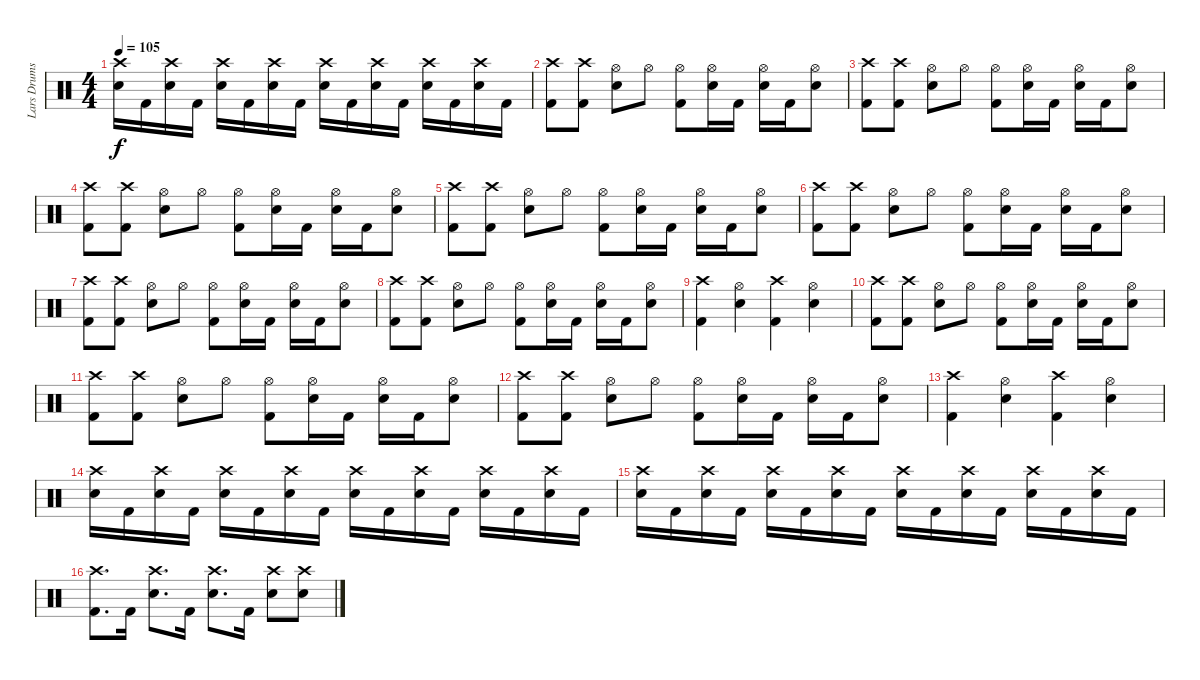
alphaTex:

\track ("Lars Drums" "Lars Drums") {instrument percussion}
\staff {score}
\articulation defaults
\ts (4 4)
\tempo 105
\clef neutral
\ks c
("Crash high (hit)" "Snare (hit) 2").16{dy f} "Kick (hit) 2".16 ("Crash high (hit)" "Snare (hit) 2").16 "Kick (hit) 2".16 ("Crash high (hit)" "Snare (hit) 2").16 "Kick (hit) 2".16 ("Crash high (hit)" "Snare (hit) 2").16 "Kick (hit) 2".16 ("Crash high (hit)" "Snare (hit) 2").16 "Kick (hit) 2".16 ("Crash high (hit)" "Snare (hit) 2").16 "Kick (hit) 2".16 ("Crash high (hit)" "Snare (hit) 2").16 "Kick (hit) 2".16 ("Crash high (hit)" "Snare (hit) 2").16 "Kick (hit) 2".16 |
("Crash high (hit)" "Kick (hit) 2").8 ("Crash high (hit)" "Kick (hit) 2").8 ("Hi-Hat (open)" "Snare (hit) 2").8 "Hi-Hat (open)".8 ("Hi-Hat (open)" "Kick (hit) 2").8 ("Hi-Hat (open)" "Snare (hit) 2").16 "Kick (hit) 2".16 ("Hi-Hat (open)" "Snare (hit) 2").16 "Kick (hit) 2".16 ("Hi-Hat (open)" "Snare (hit) 2").8 |
("Crash high (hit)" "Kick (hit) 2").8 ("Crash high (hit)" "Kick (hit) 2").8 ("Hi-Hat (open)" "Snare (hit) 2").8 "Hi-Hat (open)".8 ("Hi-Hat (open)" "Kick (hit) 2").8 ("Hi-Hat (open)" "Snare (hit) 2").16 "Kick (hit) 2".16 ("Hi-Hat (open)" "Snare (hit) 2").16 "Kick (hit) 2".16 ("Hi-Hat (open)" "Snare (hit) 2").8 |
("Crash high (hit)" "Kick (hit) 2").8 ("Crash high (hit)" "Kick (hit) 2").8 ("Hi-Hat (open)" "Snare (hit) 2").8 "Hi-Hat (open)".8 ("Hi-Hat (open)" "Kick (hit) 2").8 ("Hi-Hat (open)" "Snare (hit) 2").16 "Kick (hit) 2".16 ("Hi-Hat (open)" "Snare (hit) 2").16 "Kick (hit) 2".16 ("Hi-Hat (open)" "Snare (hit) 2").8 |
("Crash high (hit)" "Kick (hit) 2").8 ("Crash high (hit)" "Kick (hit) 2").8 ("Hi-Hat (open)" "Snare (hit) 2").8 "Hi-Hat (open)".8 ("Hi-Hat (open)" "Kick (hit) 2").8 ("Hi-Hat (open)" "Snare (hit) 2").16 "Kick (hit) 2".16 ("Hi-Hat (open)" "Snare (hit) 2").16 "Kick (hit) 2".16 ("Hi-Hat (open)" "Snare (hit) 2").8 |
("Crash high (hit)" "Kick (hit) 2").8 ("Crash high (hit)" "Kick (hit) 2").8 ("Hi-Hat (open)" "Snare (hit) 2").8 "Hi-Hat (open)".8 ("Hi-Hat (open)" "Kick (hit) 2").8 ("Hi-Hat (open)" "Snare (hit) 2").16 "Kick (hit) 2".16 ("Hi-Hat (open)" "Snare (hit) 2").16 "Kick (hit) 2".16 ("Hi-Hat (open)" "Snare (hit) 2").8 |
("Crash high (hit)" "Kick (hit) 2").8 ("Crash high (hit)" "Kick (hit) 2").8 ("Hi-Hat (open)" "Snare (hit) 2").8 "Hi-Hat (open)".8 ("Hi-Hat (open)" "Kick (hit) 2").8 ("Hi-Hat (open)" "Snare (hit) 2").16 "Kick (hit) 2".16 ("Hi-Hat (open)" "Snare (hit) 2").16 "Kick (hit) 2".16 ("Hi-Hat (open)" "Snare (hit) 2").8 |
("Crash high (hit)" "Kick (hit) 2").8 ("Crash high (hit)" "Kick (hit) 2").8 ("Hi-Hat (open)" "Snare (hit) 2").8 "Hi-Hat (open)".8 ("Hi-Hat (open)" "Kick (hit) 2").8 ("Hi-Hat (open)" "Snare (hit) 2").16 "Kick (hit) 2".16 ("Hi-Hat (open)" "Snare (hit) 2").16 "Kick (hit) 2".16 ("Hi-Hat (open)" "Snare (hit) 2").8 |
("Crash high (hit)" "Kick (hit) 2").4 ("Hi-Hat (open)" "Snare (hit) 2").4 ("Crash high (hit)" "Kick (hit) 2").4 ("Hi-Hat (open)" "Snare (hit) 2").4 |
("Crash high (hit)" "Kick (hit) 2").8 ("Crash high (hit)" "Kick (hit) 2").8 ("Hi-Hat (open)" "Snare (hit) 2").8 "Hi-Hat (open)".8 ("Hi-Hat (open)" "Kick (hit) 2").8 ("Hi-Hat (open)" "Snare (hit) 2").16 "Kick (hit) 2".16 ("Hi-Hat (open)" "Snare (hit) 2").16 "Kick (hit) 2".16 ("Hi-Hat (open)" "Snare (hit) 2").8 |
("Crash high (hit)" "Kick (hit) 2").8 ("Crash high (hit)" "Kick (hit) 2").8 ("Hi-Hat (open)" "Snare (hit) 2").8 "Hi-Hat (open)".8 ("Hi-Hat (open)" "Kick (hit) 2").8 ("Hi-Hat (open)" "Snare (hit) 2").16 "Kick (hit) 2".16 ("Hi-Hat (open)" "Snare (hit) 2").16 "Kick (hit) 2".16 ("Hi-Hat (open)" "Snare (hit) 2").8 |
("Crash high (hit)" "Kick (hit) 2").8 ("Crash high (hit)" "Kick (hit) 2").8 ("Hi-Hat (open)" "Snare (hit) 2").8 "Hi-Hat (open)".8 ("Hi-Hat (open)" "Kick (hit) 2").8 ("Hi-Hat (open)" "Snare (hit) 2").16 "Kick (hit) 2".16 ("Hi-Hat (open)" "Snare (hit) 2").16 "Kick (hit) 2".16 ("Hi-Hat (open)" "Snare (hit) 2").8 |
("Crash high (hit)" "Kick (hit) 2").4 ("Hi-Hat (open)" "Snare (hit) 2").4 ("Crash high (hit)" "Kick (hit) 2").4 ("Hi-Hat (open)" "Snare (hit) 2").4 |
("Crash high (hit)" "Snare (hit) 2").16 "Kick (hit) 2".16 ("Crash high (hit)" "Snare (hit) 2").16 "Kick (hit) 2".16 ("Crash high (hit)" "Snare (hit) 2").16 "Kick (hit) 2".16 ("Crash high (hit)" "Snare (hit) 2").16 "Kick (hit) 2".16 ("Crash high (hit)" "Snare (hit) 2").16 "Kick (hit) 2".16 ("Crash high (hit)" "Snare (hit) 2").16 "Kick (hit) 2".16 ("Crash high (hit)" "Snare (hit) 2").16 "Kick (hit) 2".16 ("Crash high (hit)" "Snare (hit) 2").16 "Kick (hit) 2".16 |
("Crash high (hit)" "Snare (hit) 2").16 "Kick (hit) 2".16 ("Crash high (hit)" "Snare (hit) 2").16 "Kick (hit) 2".16 ("Crash high (hit)" "Snare (hit) 2").16 "Kick (hit) 2".16 ("Crash high (hit)" "Snare (hit) 2").16 "Kick (hit) 2".16 ("Crash high (hit)" "Snare (hit) 2").16 "Kick (hit) 2".16 ("Crash high (hit)" "Snare (hit) 2").16 "Kick (hit) 2".16 ("Crash high (hit)" "Snare (hit) 2").16 "Kick (hit) 2".16 ("Crash high (hit)" "Snare (hit) 2").16 "Kick (hit) 2".16 |
("Crash high (hit)" "Kick (hit) 2").8{d} "Kick (hit) 2".16 ("Crash high (hit)" "Snare (hit) 2").8{d} "Kick (hit) 2".16 ("Crash high (hit)" "Snare (hit) 2").8{d} "Kick (hit) 2".16 ("Crash high (hit)" "Snare (hit) 2").8 ("Crash high (hit)" "Snare (hit) 2").8
